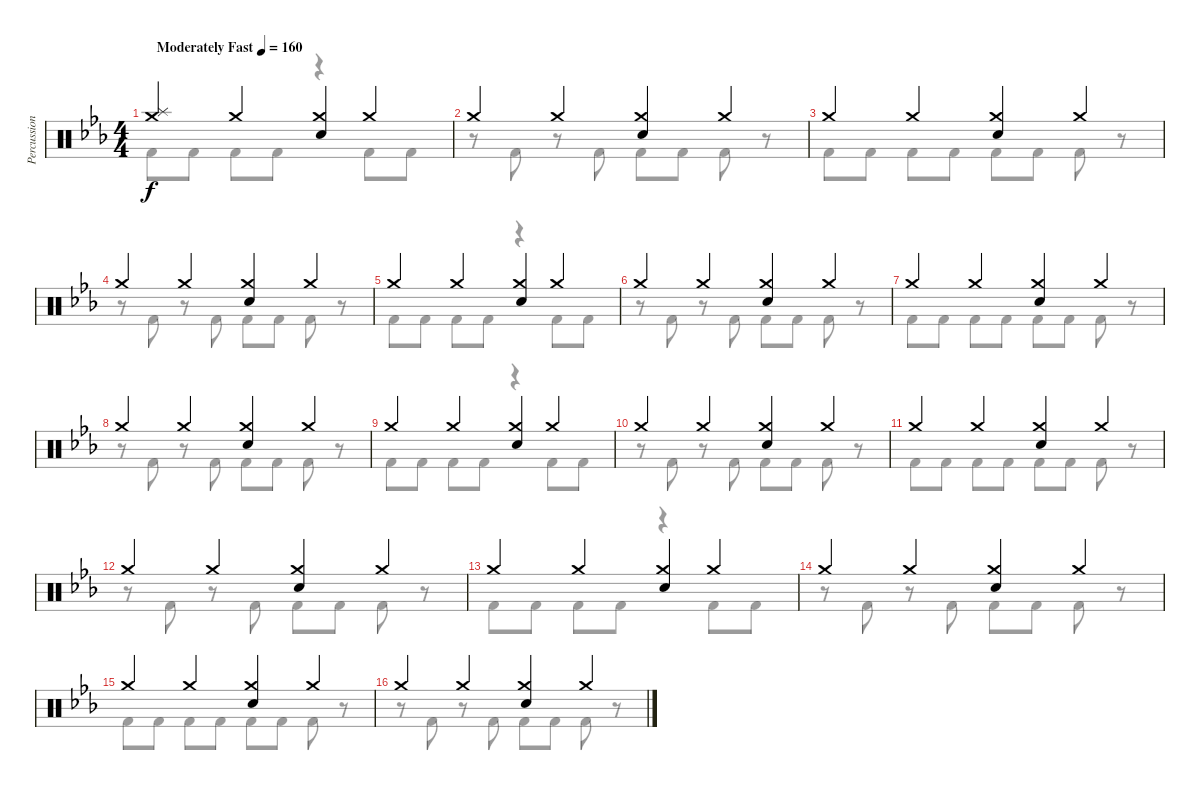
\track ("Percussion" "Percussion") {instrument percussion}
\staff {score}
\articulation defaults
\voice
\ts (4 4)
\tempo (160 "Moderately Fast")
\clef neutral
\ks cminor
("Crash medium (hit)" "Splash (hit)").4{dy f} "Crash medium (hit)".4 ("Crash medium (hit)" "Electric Snare (hit)").4 "Crash medium (hit)".4 |
"Crash medium (hit)".4 "Crash medium (hit)".4 ("Crash medium (hit)" "Electric Snare (hit)").4 "Crash medium (hit)".4 |
"Crash medium (hit)".4 "Crash medium (hit)".4 ("Crash medium (hit)" "Electric Snare (hit)").4 "Crash medium (hit)".4 |
"Crash medium (hit)".4 "Crash medium (hit)".4 ("Crash medium (hit)" "Electric Snare (hit)").4 "Crash medium (hit)".4 |
"Crash medium (hit)".4 "Crash medium (hit)".4 ("Crash medium (hit)" "Electric Snare (hit)").4 "Crash medium (hit)".4 |
"Crash medium (hit)".4 "Crash medium (hit)".4 ("Crash medium (hit)" "Electric Snare (hit)").4 "Crash medium (hit)".4 |
"Crash medium (hit)".4 "Crash medium (hit)".4 ("Crash medium (hit)" "Electric Snare (hit)").4 "Crash medium (hit)".4 |
"Crash medium (hit)".4 "Crash medium (hit)".4 ("Crash medium (hit)" "Electric Snare (hit)").4 "Crash medium (hit)".4 |
"Crash medium (hit)".4 "Crash medium (hit)".4 ("Crash medium (hit)" "Electric Snare (hit)").4 "Crash medium (hit)".4 |
"Crash medium (hit)".4 "Crash medium (hit)".4 ("Crash medium (hit)" "Electric Snare (hit)").4 "Crash medium (hit)".4 |
"Crash medium (hit)".4 "Crash medium (hit)".4 ("Crash medium (hit)" "Electric Snare (hit)").4 "Crash medium (hit)".4 |
"Crash medium (hit)".4 "Crash medium (hit)".4 ("Crash medium (hit)" "Electric Snare (hit)").4 "Crash medium (hit)".4 |
"Crash medium (hit)".4 "Crash medium (hit)".4 ("Crash medium (hit)" "Electric Snare (hit)").4 "Crash medium (hit)".4 |
"Crash medium (hit)".4 "Crash medium (hit)".4 ("Crash medium (hit)" "Electric Snare (hit)").4 "Crash medium (hit)".4 |
"Crash medium (hit)".4 "Crash medium (hit)".4 ("Crash medium (hit)" "Electric Snare (hit)").4 "Crash medium (hit)".4 |
"Crash medium (hit)".4 "Crash medium (hit)".4 ("Crash medium (hit)" "Electric Snare (hit)").4 "Crash medium (hit)".4
\voice
\clef neutral
\ottava regular
\simile none
\ks cminor "Kick (hit) 2".8{dy f} "Kick (hit) 2".8 "Kick (hit) 2".8 "Kick (hit) 2".8
r.4 "Kick (hit) 2".8 "Kick (hit) 2".8 |
r.8 "Kick (hit) 2".8 r.8 "Kick (hit) 2".8 "Kick (hit) 2".8 "Kick (hit) 2".8 "Kick (hit) 2".8 r.8 |
"Kick (hit) 2".8 "Kick (hit) 2".8 "Kick (hit) 2".8 "Kick (hit) 2".8 "Kick (hit) 2".8 "Kick (hit) 2".8 "Kick (hit) 2".8 r.8 |
r.8 "Kick (hit) 2".8 r.8 "Kick (hit) 2".8 "Kick (hit) 2".8 "Kick (hit) 2".8 "Kick (hit) 2".8 r.8 |
"Kick (hit) 2".8 "Kick (hit) 2".8 "Kick (hit) 2".8 "Kick (hit) 2".8 r.4 "Kick (hit) 2".8 "Kick (hit) 2".8 |
r.8 "Kick (hit) 2".8 r.8 "Kick (hit) 2".8 "Kick (hit) 2".8 "Kick (hit) 2".8 "Kick (hit) 2".8 r.8 |
"Kick (hit) 2".8 "Kick (hit) 2".8 "Kick (hit) 2".8 "Kick (hit) 2".8 "Kick (hit) 2".8 "Kick (hit) 2".8 "Kick (hit) 2".8 r.8 |
r.8 "Kick (hit) 2".8 r.8 "Kick (hit) 2".8 "Kick (hit) 2".8 "Kick (hit) 2".8 "Kick (hit) 2".8 r.8 |
"Kick (hit) 2".8 "Kick (hit) 2".8 "Kick (hit) 2".8 "Kick (hit) 2".8 r.4 "Kick (hit) 2".8 "Kick (hit) 2".8 |
r.8 "Kick (hit) 2".8 r.8 "Kick (hit) 2".8 "Kick (hit) 2".8 "Kick (hit) 2".8 "Kick (hit) 2".8 r.8 |
"Kick (hit) 2".8 "Kick (hit) 2".8 "Kick (hit) 2".8 "Kick (hit) 2".8 "Kick (hit) 2".8 "Kick (hit) 2".8 "Kick (hit) 2".8 r.8 |
r.8 "Kick (hit) 2".8 r.8 "Kick (hit) 2".8 "Kick (hit) 2".8 "Kick (hit) 2".8 "Kick (hit) 2".8 r.8 |
"Kick (hit) 2".8 "Kick (hit) 2".8 "Kick (hit) 2".8 "Kick (hit) 2".8 r.4 "Kick (hit) 2".8 "Kick (hit) 2".8 |
r.8 "Kick (hit) 2".8 r.8 "Kick (hit) 2".8 "Kick (hit) 2".8 "Kick (hit) 2".8 "Kick (hit) 2".8 r.8 |
"Kick (hit) 2".8 "Kick (hit) 2".8 "Kick (hit) 2".8 "Kick (hit) 2".8 "Kick (hit) 2".8 "Kick (hit) 2".8 "Kick (hit) 2".8 r.8 |
r.8 "Kick (hit) 2".8 r.8 "Kick (hit) 2".8 "Kick (hit) 2".8 "Kick (hit) 2".8 "Kick (hit) 2".8 r.8
